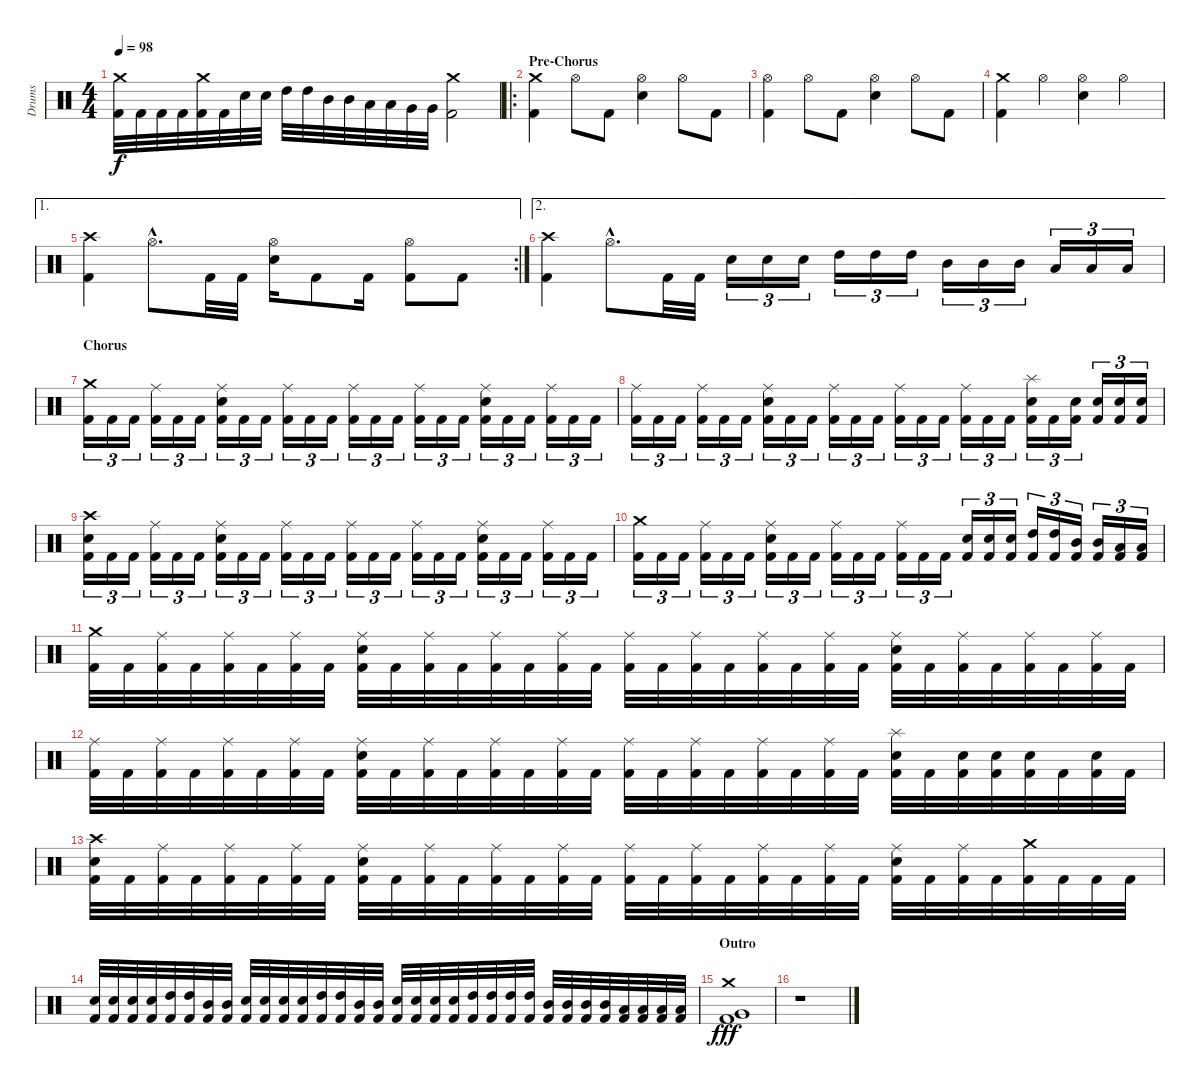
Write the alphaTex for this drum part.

\track ("Drums" "Drums") {instrument percussion}
\staff {score}
\articulation defaults
\ts (4 4)
\tempo 98
\clef neutral
\ks c
("Kick (hit) 2" "Crash medium (hit)").32{dy f} "Kick (hit) 2".32 "Kick (hit) 2".32 "Kick (hit) 2".32 ("Kick (hit) 2" "Crash medium (hit)").32 "Kick (hit) 2".32 "Electric Snare (hit)".32 "Electric Snare (hit)".32 "High Tom (hit)".32 "High Tom (hit)".32 "Mid Tom (hit)".32 "Mid Tom (hit)".32 "Low Tom (hit)".32 "Low Tom (hit)".32 "Very Low Tom (hit)".32 "Very Low Tom (hit)".32 ("Kick (hit) 2" "Crash medium (hit)").2 |
\ro
\section ("" "Pre-Chorus")
("Kick (hit) 2" "Crash medium (hit)").4 "Hi-Hat (open)".8 "Kick (hit) 2".8 ("Electric Snare (hit)" "Hi-Hat (open)").4 "Hi-Hat (open)".8 "Kick (hit) 2".8 |
("Kick (hit) 2" "Hi-Hat (open)").4 "Hi-Hat (open)".8 "Kick (hit) 2".8 ("Electric Snare (hit)" "Hi-Hat (open)").4 "Hi-Hat (open)".8 "Kick (hit) 2".8 |
("Kick (hit) 2" "Crash medium (hit)").4 "Hi-Hat (open)".4 ("Electric Snare (hit)" "Hi-Hat (open)").4 "Hi-Hat (open)".4 |
\ae 1
\rc 2
("Kick (hit) 2" "Crash high (hit)").4 "Hi-Hat (open)"{hac}.8{d} "Kick (hit) 2".32 "Kick (hit) 2".32 ("Electric Snare (hit)" "Hi-Hat (open)").16 "Kick (hit) 2".8 "Kick (hit) 2".16 ("Kick (hit) 2" "Hi-Hat (open)").8 "Kick (hit) 2".8 |
\ae 2
("Kick (hit) 2" "Crash high (hit)").4 "Hi-Hat (open)"{hac}.8{d} "Kick (hit) 2".32 "Kick (hit) 2".32 "Electric Snare (hit)".16{tu (3 2)} "Electric Snare (hit)".16{tu (3 2)} "Electric Snare (hit)".16{tu (3 2)} "High Tom (hit)".16{tu (3 2)} "High Tom (hit)".16{tu (3 2)} "High Tom (hit)".16{tu (3 2)} "Mid Tom (hit)".16{tu (3 2)} "Mid Tom (hit)".16{tu (3 2)} "Mid Tom (hit)".16{tu (3 2)} "Low Tom (hit)".16{tu (3 2)} "Low Tom (hit)".16{tu (3 2)} "Low Tom (hit)".16{tu (3 2)} |
\section ("" "Chorus")
("Kick (hit) 2" "Crash medium (hit)").16{tu (3 2)} "Kick (hit) 2".16{tu (3 2)} "Kick (hit) 2".16{tu (3 2)} ("Kick (hit) 2" "Ride (middle)").16{tu (3 2)} "Kick (hit) 2".16{tu (3 2)} "Kick (hit) 2".16{tu (3 2)} ("Kick (hit) 2" "Electric Snare (hit)" "Ride (middle)").16{tu (3 2)} "Kick (hit) 2".16{tu (3 2)} "Kick (hit) 2".16{tu (3 2)} ("Kick (hit) 2" "Ride (middle)").16{tu (3 2)} "Kick (hit) 2".16{tu (3 2)} "Kick (hit) 2".16{tu (3 2)} ("Kick (hit) 2" "Ride (middle)").16{tu (3 2)} "Kick (hit) 2".16{tu (3 2)} "Kick (hit) 2".16{tu (3 2)} ("Kick (hit) 2" "Ride (middle)").16{tu (3 2)} "Kick (hit) 2".16{tu (3 2)} "Kick (hit) 2".16{tu (3 2)} ("Kick (hit) 2" "Electric Snare (hit)" "Ride (middle)").16{tu (3 2)} "Kick (hit) 2".16{tu (3 2)} "Kick (hit) 2".16{tu (3 2)} ("Kick (hit) 2" "Ride (middle)").16{tu (3 2)} "Kick (hit) 2".16{tu (3 2)} "Kick (hit) 2".16{tu (3 2)} |
("Kick (hit) 2" "Ride (middle)").16{tu (3 2)} "Kick (hit) 2".16{tu (3 2)} "Kick (hit) 2".16{tu (3 2)} ("Kick (hit) 2" "Ride (middle)").16{tu (3 2)} "Kick (hit) 2".16{tu (3 2)} "Kick (hit) 2".16{tu (3 2)} ("Kick (hit) 2" "Electric Snare (hit)" "Ride (middle)").16{tu (3 2)} "Kick (hit) 2".16{tu (3 2)} "Kick (hit) 2".16{tu (3 2)} ("Kick (hit) 2" "Ride (middle)").16{tu (3 2)} "Kick (hit) 2".16{tu (3 2)} "Kick (hit) 2".16{tu (3 2)} ("Kick (hit) 2" "Ride (middle)").16{tu (3 2)} "Kick (hit) 2".16{tu (3 2)} "Kick (hit) 2".16{tu (3 2)} ("Kick (hit) 2" "Ride (middle)").16{tu (3 2)} "Kick (hit) 2".16{tu (3 2)} "Kick (hit) 2".16{tu (3 2)} ("Kick (hit) 2" "Electric Snare (hit)" "Splash (hit)").16{tu (3 2)} "Kick (hit) 2".16{tu (3 2)} ("Kick (hit) 2" "Electric Snare (hit)").16{tu (3 2)} ("Kick (hit) 2" "Electric Snare (hit)").16{tu (3 2)} ("Kick (hit) 2" "Electric Snare (hit)").16{tu (3 2)} ("Kick (hit) 2" "Electric Snare (hit)").16{tu (3 2)} |
("Kick (hit) 2" "Electric Snare (hit)" "Crash high (hit)").16{tu (3 2)} "Kick (hit) 2".16{tu (3 2)} "Kick (hit) 2".16{tu (3 2)} ("Kick (hit) 2" "Ride (middle)").16{tu (3 2)} "Kick (hit) 2".16{tu (3 2)} "Kick (hit) 2".16{tu (3 2)} ("Kick (hit) 2" "Electric Snare (hit)" "Ride (middle)").16{tu (3 2)} "Kick (hit) 2".16{tu (3 2)} "Kick (hit) 2".16{tu (3 2)} ("Kick (hit) 2" "Ride (middle)").16{tu (3 2)} "Kick (hit) 2".16{tu (3 2)} "Kick (hit) 2".16{tu (3 2)} ("Kick (hit) 2" "Ride (middle)").16{tu (3 2)} "Kick (hit) 2".16{tu (3 2)} "Kick (hit) 2".16{tu (3 2)} ("Kick (hit) 2" "Ride (middle)").16{tu (3 2)} "Kick (hit) 2".16{tu (3 2)} "Kick (hit) 2".16{tu (3 2)} ("Kick (hit) 2" "Electric Snare (hit)" "Ride (middle)").16{tu (3 2)} "Kick (hit) 2".16{tu (3 2)} "Kick (hit) 2".16{tu (3 2)} ("Kick (hit) 2" "Ride (middle)").16{tu (3 2)} "Kick (hit) 2".16{tu (3 2)} "Kick (hit) 2".16{tu (3 2)} |
("Kick (hit) 2" "Crash medium (hit)").16{tu (3 2)} "Kick (hit) 2".16{tu (3 2)} "Kick (hit) 2".16{tu (3 2)} ("Kick (hit) 2" "Ride (middle)").16{tu (3 2)} "Kick (hit) 2".16{tu (3 2)} "Kick (hit) 2".16{tu (3 2)} ("Kick (hit) 2" "Electric Snare (hit)" "Ride (middle)").16{tu (3 2)} "Kick (hit) 2".16{tu (3 2)} "Kick (hit) 2".16{tu (3 2)} ("Kick (hit) 2" "Ride (middle)").16{tu (3 2)} "Kick (hit) 2".16{tu (3 2)} "Kick (hit) 2".16{tu (3 2)} ("Kick (hit) 2" "Ride (middle)").16{tu (3 2)} "Kick (hit) 2".16{tu (3 2)} "Kick (hit) 2".16{tu (3 2)} ("Kick (hit) 2" "Electric Snare (hit)").16{tu (3 2)} ("Kick (hit) 2" "Electric Snare (hit)").16{tu (3 2)} ("Kick (hit) 2" "Electric Snare (hit)").16{tu (3 2)} ("Kick (hit) 2" "High Tom (hit)").16{tu (3 2)} ("Kick (hit) 2" "High Tom (hit)").16{tu (3 2)} ("Kick (hit) 2" "Mid Tom (hit)").16{tu (3 2)} ("Kick (hit) 2" "Mid Tom (hit)").16{tu (3 2)} ("Kick (hit) 2" "Low Tom (hit)").16{tu (3 2)} ("Kick (hit) 2" "Low Tom (hit)").16{tu (3 2)} |
("Kick (hit) 2" "Crash medium (hit)").32 "Kick (hit) 2".32 ("Kick (hit) 2" "Ride (middle)").32 "Kick (hit) 2".32 ("Kick (hit) 2" "Ride (middle)").32 "Kick (hit) 2".32 ("Kick (hit) 2" "Ride (middle)").32 "Kick (hit) 2".32 ("Kick (hit) 2" "Electric Snare (hit)" "Ride (middle)").32 "Kick (hit) 2".32 ("Kick (hit) 2" "Ride (middle)").32 "Kick (hit) 2".32 ("Kick (hit) 2" "Ride (middle)").32 "Kick (hit) 2".32 ("Kick (hit) 2" "Ride (middle)").32 "Kick (hit) 2".32 ("Kick (hit) 2" "Ride (middle)").32 "Kick (hit) 2".32 ("Kick (hit) 2" "Ride (middle)").32 "Kick (hit) 2".32 ("Kick (hit) 2" "Ride (middle)").32 "Kick (hit) 2".32 ("Kick (hit) 2" "Ride (middle)").32 "Kick (hit) 2".32 ("Kick (hit) 2" "Electric Snare (hit)" "Ride (middle)").32 "Kick (hit) 2".32 ("Kick (hit) 2" "Ride (middle)").32 "Kick (hit) 2".32 ("Kick (hit) 2" "Ride (middle)").32 "Kick (hit) 2".32 ("Kick (hit) 2" "Ride (middle)").32 "Kick (hit) 2".32 |
("Kick (hit) 2" "Ride (middle)").32 "Kick (hit) 2".32 ("Kick (hit) 2" "Ride (middle)").32 "Kick (hit) 2".32 ("Kick (hit) 2" "Ride (middle)").32 "Kick (hit) 2".32 ("Kick (hit) 2" "Ride (middle)").32 "Kick (hit) 2".32 ("Kick (hit) 2" "Electric Snare (hit)" "Ride (middle)").32 "Kick (hit) 2".32 ("Kick (hit) 2" "Ride (middle)").32 "Kick (hit) 2".32 ("Kick (hit) 2" "Ride (middle)").32 "Kick (hit) 2".32 ("Kick (hit) 2" "Ride (middle)").32 "Kick (hit) 2".32 ("Kick (hit) 2" "Ride (middle)").32 "Kick (hit) 2".32 ("Kick (hit) 2" "Ride (middle)").32 "Kick (hit) 2".32 ("Kick (hit) 2" "Ride (middle)").32 "Kick (hit) 2".32 ("Kick (hit) 2" "Ride (middle)").32 "Kick (hit) 2".32 ("Kick (hit) 2" "Electric Snare (hit)" "Splash (hit)").32 "Kick (hit) 2".32 ("Kick (hit) 2" "Electric Snare (hit)").32 ("Kick (hit) 2" "Electric Snare (hit)").32 ("Kick (hit) 2" "Electric Snare (hit)").32 "Kick (hit) 2".32 ("Kick (hit) 2" "Electric Snare (hit)").32 "Kick (hit) 2".32 |
("Kick (hit) 2" "Electric Snare (hit)" "Crash high (hit)").32 "Kick (hit) 2".32 ("Kick (hit) 2" "Ride (middle)").32 "Kick (hit) 2".32 ("Kick (hit) 2" "Ride (middle)").32 "Kick (hit) 2".32 ("Kick (hit) 2" "Ride (middle)").32 "Kick (hit) 2".32 ("Kick (hit) 2" "Electric Snare (hit)" "Ride (middle)").32 "Kick (hit) 2".32 ("Kick (hit) 2" "Ride (middle)").32 "Kick (hit) 2".32 ("Kick (hit) 2" "Ride (middle)").32 "Kick (hit) 2".32 ("Kick (hit) 2" "Ride (middle)").32 "Kick (hit) 2".32 ("Kick (hit) 2" "Ride (middle)").32 "Kick (hit) 2".32 ("Kick (hit) 2" "Ride (middle)").32 "Kick (hit) 2".32 ("Kick (hit) 2" "Ride (middle)").32 "Kick (hit) 2".32 ("Kick (hit) 2" "Ride (middle)").32 "Kick (hit) 2".32 ("Kick (hit) 2" "Electric Snare (hit)" "Ride (middle)").32 "Kick (hit) 2".32 ("Kick (hit) 2" "Ride (middle)").32 "Kick (hit) 2".32 ("Kick (hit) 2" "Crash medium (hit)").32 "Kick (hit) 2".32 "Kick (hit) 2".32 "Kick (hit) 2".32 |
("Kick (hit) 2" "Electric Snare (hit)").32 ("Kick (hit) 2" "Electric Snare (hit)").32 ("Kick (hit) 2" "Electric Snare (hit)").32 ("Kick (hit) 2" "Electric Snare (hit)").32 ("Kick (hit) 2" "High Tom (hit)").32 ("Kick (hit) 2" "High Tom (hit)").32 ("Kick (hit) 2" "Mid Tom (hit)").32 ("Kick (hit) 2" "Mid Tom (hit)").32 ("Kick (hit) 2" "Electric Snare (hit)").32 ("Kick (hit) 2" "Electric Snare (hit)").32 ("Kick (hit) 2" "Electric Snare (hit)").32 ("Kick (hit) 2" "Electric Snare (hit)").32 ("Kick (hit) 2" "High Tom (hit)").32 ("Kick (hit) 2" "High Tom (hit)").32 ("Kick (hit) 2" "Mid Tom (hit)").32 ("Kick (hit) 2" "Mid Tom (hit)").32 ("Kick (hit) 2" "Electric Snare (hit)").32 ("Kick (hit) 2" "Electric Snare (hit)").32 ("Kick (hit) 2" "Electric Snare (hit)").32 ("Kick (hit) 2" "Electric Snare (hit)").32 ("Kick (hit) 2" "High Tom (hit)").32 ("Kick (hit) 2" "High Tom (hit)").32 ("Kick (hit) 2" "High Tom (hit)").32 ("Kick (hit) 2" "High Tom (hit)").32 ("Kick (hit) 2" "Mid Tom (hit)").32 ("Kick (hit) 2" "Mid Tom (hit)").32 ("Kick (hit) 2" "Mid Tom (hit)").32 ("Kick (hit) 2" "Mid Tom (hit)").32 ("Kick (hit) 2" "Low Tom (hit)").32 ("Kick (hit) 2" "Low Tom (hit)").32 ("Kick (hit) 2" "Low Tom (hit)").32 ("Kick (hit) 2" "Low Tom (hit)").32 |
\section ("" "Outro")
("Kick (hit) 2" "Very Low Tom (hit)" "Crash medium (hit)").1{dy fff} |
r.1
